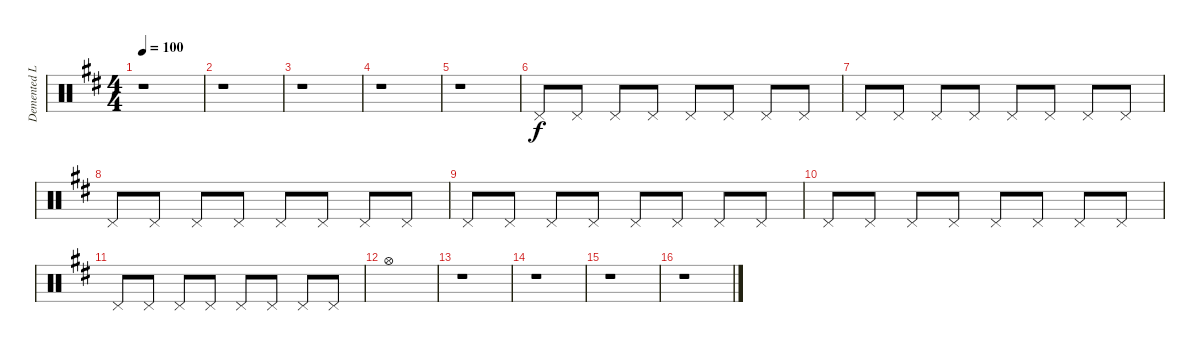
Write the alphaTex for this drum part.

\track ("Demented Leming (Drums)" "Demented L") {instrument percussion}
\staff {score}
\articulation defaults
\ts (4 4)
\tempo 100
\clef neutral
\ks d
r.1{dy f} |
r.1 |
r.1 |
r.1 |
r.1 |
"Pedal Hi-Hat (hit)".8 "Pedal Hi-Hat (hit)".8 "Pedal Hi-Hat (hit)".8 "Pedal Hi-Hat (hit)".8 "Pedal Hi-Hat (hit)".8 "Pedal Hi-Hat (hit)".8 "Pedal Hi-Hat (hit)".8 "Pedal Hi-Hat (hit)".8 |
"Pedal Hi-Hat (hit)".8 "Pedal Hi-Hat (hit)".8 "Pedal Hi-Hat (hit)".8 "Pedal Hi-Hat (hit)".8 "Pedal Hi-Hat (hit)".8 "Pedal Hi-Hat (hit)".8 "Pedal Hi-Hat (hit)".8 "Pedal Hi-Hat (hit)".8 |
"Pedal Hi-Hat (hit)".8 "Pedal Hi-Hat (hit)".8 "Pedal Hi-Hat (hit)".8 "Pedal Hi-Hat (hit)".8 "Pedal Hi-Hat (hit)".8 "Pedal Hi-Hat (hit)".8 "Pedal Hi-Hat (hit)".8 "Pedal Hi-Hat (hit)".8 |
"Pedal Hi-Hat (hit)".8 "Pedal Hi-Hat (hit)".8 "Pedal Hi-Hat (hit)".8 "Pedal Hi-Hat (hit)".8 "Pedal Hi-Hat (hit)".8 "Pedal Hi-Hat (hit)".8 "Pedal Hi-Hat (hit)".8 "Pedal Hi-Hat (hit)".8 |
"Pedal Hi-Hat (hit)".8 "Pedal Hi-Hat (hit)".8 "Pedal Hi-Hat (hit)".8 "Pedal Hi-Hat (hit)".8 "Pedal Hi-Hat (hit)".8 "Pedal Hi-Hat (hit)".8 "Pedal Hi-Hat (hit)".8 "Pedal Hi-Hat (hit)".8 |
"Pedal Hi-Hat (hit)".8 "Pedal Hi-Hat (hit)".8 "Pedal Hi-Hat (hit)".8 "Pedal Hi-Hat (hit)".8 "Pedal Hi-Hat (hit)".8 "Pedal Hi-Hat (hit)".8 "Pedal Hi-Hat (hit)".8 "Pedal Hi-Hat (hit)".8 |
"Hi-Hat (open)".1 |
r.1 |
r.1 |
r.1 |
r.1
